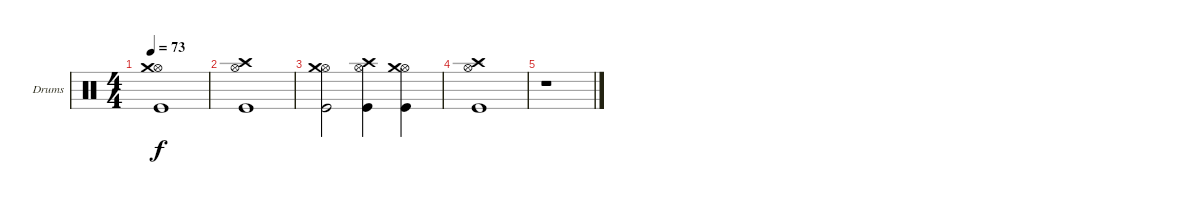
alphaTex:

\bracketExtendMode groupsimilarinstruments
\firstSystemTrackNameOrientation horizontal
\otherSystemsTrackNameOrientation horizontal
\track ("Drumkit" "Drums") {instrument percussion}
\staff {score}
\articulation defaults
\ts (4 4)
\tempo 73
\clef neutral
\ks c
("Kick (hit)" "Hi-Hat (open)" "Crash medium (hit)").1{dy f} |
("Kick (hit)" "Hi-Hat (open)" "Crash high (hit)").1 |
("Kick (hit)" "Hi-Hat (open)" "Crash medium (hit)").2 ("Kick (hit)" "Hi-Hat (open)" "Crash high (hit)").4 ("Kick (hit)" "Hi-Hat (open)" "Crash medium (hit)").4 |
("Kick (hit)" "Hi-Hat (open)" "Crash high (hit)").1 |
r.1
